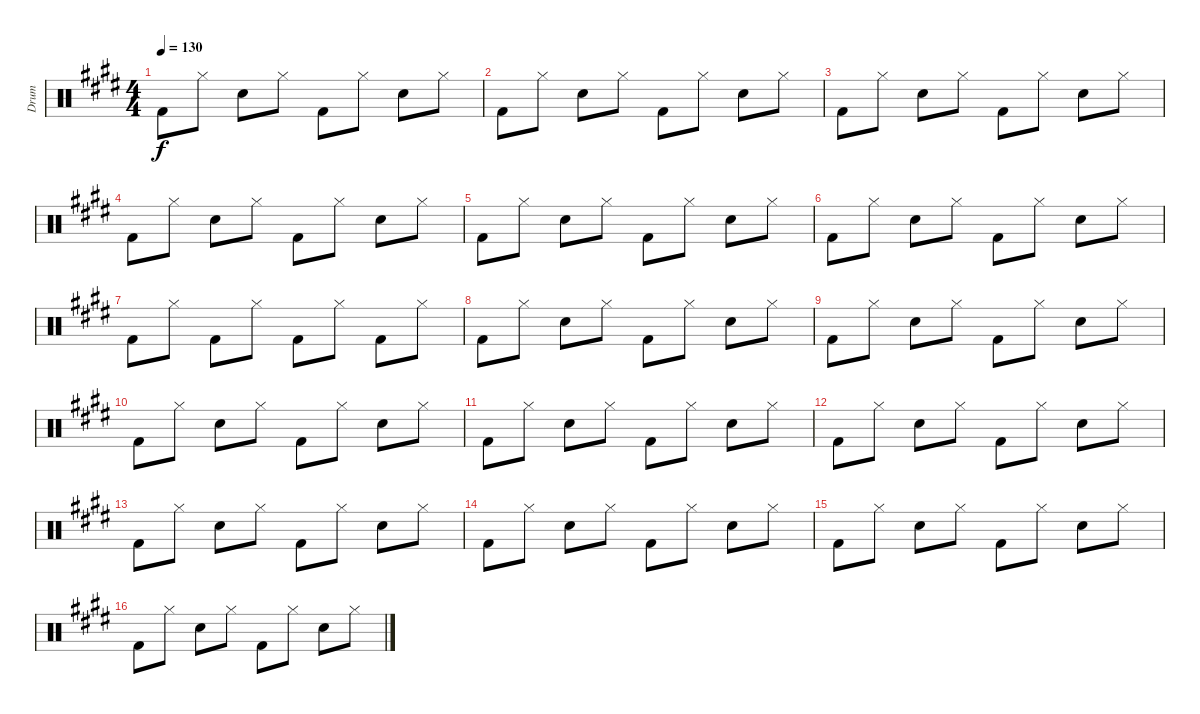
\track ("Drum" "Drum") {instrument percussion}
\staff {score}
\articulation defaults
\ts (4 4)
\tempo 130
\clef neutral
\ks c#minor "Kick (hit) 2".8{dy f} "Hi-Hat (closed)".8 "Electric Snare (hit)".8 "Hi-Hat (closed)".8 "Kick (hit) 2".8 "Hi-Hat (closed)".8 "Electric Snare (hit)".8 "Hi-Hat (closed)".8
|
"Kick (hit) 2".8 "Hi-Hat (closed)".8 "Electric Snare (hit)".8 "Hi-Hat (closed)".8 "Kick (hit) 2".8 "Hi-Hat (closed)".8 "Electric Snare (hit)".8 "Hi-Hat (closed)".8 |
"Kick (hit) 2".8 "Hi-Hat (closed)".8 "Electric Snare (hit)".8 "Hi-Hat (closed)".8 "Kick (hit) 2".8 "Hi-Hat (closed)".8 "Electric Snare (hit)".8 "Hi-Hat (closed)".8 |
"Kick (hit) 2".8 "Hi-Hat (closed)".8 "Electric Snare (hit)".8 "Hi-Hat (closed)".8 "Kick (hit) 2".8 "Hi-Hat (closed)".8 "Electric Snare (hit)".8 "Hi-Hat (closed)".8 |
"Kick (hit) 2".8 "Hi-Hat (closed)".8 "Electric Snare (hit)".8 "Hi-Hat (closed)".8 "Kick (hit) 2".8 "Hi-Hat (closed)".8 "Electric Snare (hit)".8 "Hi-Hat (closed)".8 |
"Kick (hit) 2".8 "Hi-Hat (closed)".8 "Electric Snare (hit)".8 "Hi-Hat (closed)".8 "Kick (hit) 2".8 "Hi-Hat (closed)".8 "Electric Snare (hit)".8 "Hi-Hat (closed)".8 |
"Kick (hit) 2".8 "Hi-Hat (closed)".8 "Kick (hit) 2".8 "Hi-Hat (closed)".8 "Kick (hit) 2".8 "Hi-Hat (closed)".8 "Kick (hit) 2".8 "Hi-Hat (closed)".8 |
"Kick (hit) 2".8 "Hi-Hat (closed)".8 "Electric Snare (hit)".8 "Hi-Hat (closed)".8 "Kick (hit) 2".8 "Hi-Hat (closed)".8 "Electric Snare (hit)".8 "Hi-Hat (closed)".8 |
"Kick (hit) 2".8 "Hi-Hat (closed)".8 "Electric Snare (hit)".8 "Hi-Hat (closed)".8 "Kick (hit) 2".8 "Hi-Hat (closed)".8 "Electric Snare (hit)".8 "Hi-Hat (closed)".8 |
"Kick (hit) 2".8 "Hi-Hat (closed)".8 "Electric Snare (hit)".8 "Hi-Hat (closed)".8 "Kick (hit) 2".8 "Hi-Hat (closed)".8 "Electric Snare (hit)".8 "Hi-Hat (closed)".8 |
"Kick (hit) 2".8 "Hi-Hat (closed)".8 "Electric Snare (hit)".8 "Hi-Hat (closed)".8 "Kick (hit) 2".8 "Hi-Hat (closed)".8 "Electric Snare (hit)".8 "Hi-Hat (closed)".8 |
"Kick (hit) 2".8 "Hi-Hat (closed)".8 "Electric Snare (hit)".8 "Hi-Hat (closed)".8 "Kick (hit) 2".8 "Hi-Hat (closed)".8 "Electric Snare (hit)".8 "Hi-Hat (closed)".8 |
"Kick (hit) 2".8 "Hi-Hat (closed)".8 "Electric Snare (hit)".8 "Hi-Hat (closed)".8 "Kick (hit) 2".8 "Hi-Hat (closed)".8 "Electric Snare (hit)".8 "Hi-Hat (closed)".8 |
"Kick (hit) 2".8 "Hi-Hat (closed)".8 "Electric Snare (hit)".8 "Hi-Hat (closed)".8 "Kick (hit) 2".8 "Hi-Hat (closed)".8 "Electric Snare (hit)".8 "Hi-Hat (closed)".8 |
"Kick (hit) 2".8 "Hi-Hat (closed)".8 "Electric Snare (hit)".8 "Hi-Hat (closed)".8 "Kick (hit) 2".8 "Hi-Hat (closed)".8 "Electric Snare (hit)".8 "Hi-Hat (closed)".8 |
"Kick (hit) 2".8 "Hi-Hat (closed)".8 "Electric Snare (hit)".8 "Hi-Hat (closed)".8 "Kick (hit) 2".8 "Hi-Hat (closed)".8 "Electric Snare (hit)".8 "Hi-Hat (closed)".8
